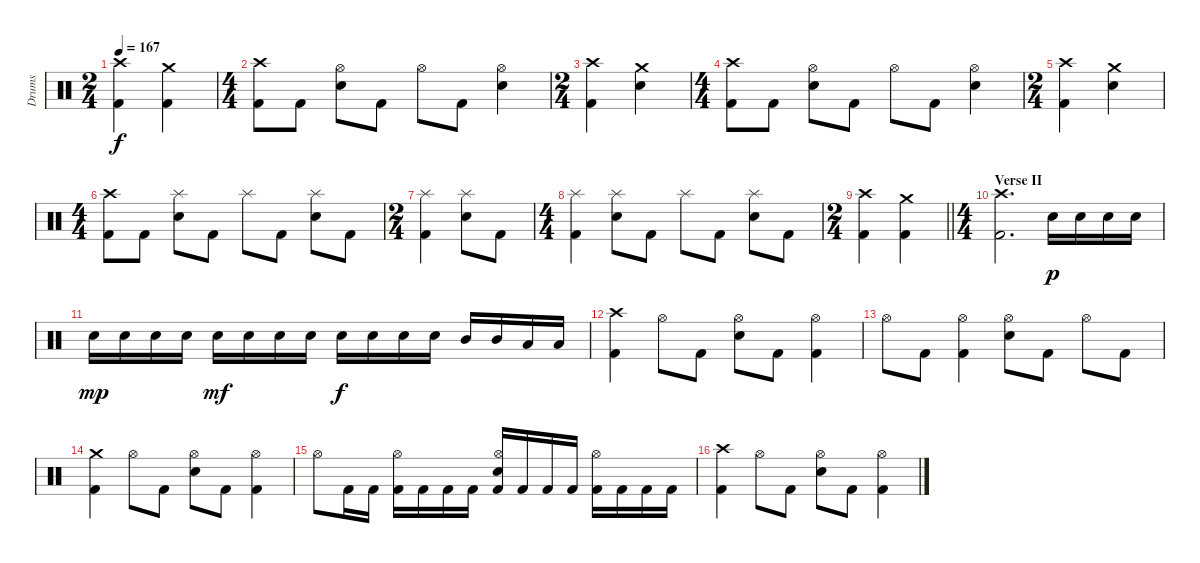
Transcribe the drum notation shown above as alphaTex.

\track ("Drums" "Drums") {instrument percussion}
\staff {score}
\articulation defaults
\ts (2 4)
\tempo 167
\clef neutral
\ks c
("Crash high (hit)" "Kick (hit) 2").4{dy f} ("Crash medium (hit)" "Kick (hit) 2").4 |
\ts (4 4)
("Crash high (hit)" "Kick (hit) 2").8 "Kick (hit) 2".8 ("Hi-Hat (open)" "Snare (hit) 2").8 "Kick (hit) 2".8 "Hi-Hat (open)".8 "Kick (hit) 2".8 ("Hi-Hat (open)" "Snare (hit) 2").4 |
\ts (2 4)
("Crash high (hit)" "Kick (hit) 2").4 ("Crash medium (hit)" "Snare (hit) 2").4 |
\ts (4 4)
("Crash high (hit)" "Kick (hit) 2").8 "Kick (hit) 2".8 ("Hi-Hat (open)" "Snare (hit) 2").8 "Kick (hit) 2".8 "Hi-Hat (open)".8 "Kick (hit) 2".8 ("Hi-Hat (open)" "Snare (hit) 2").4 |
\ts (2 4)
("Crash high (hit)" "Kick (hit) 2").4 ("Crash medium (hit)" "Snare (hit) 2").4 |
\ts (4 4)
("Crash high (hit)" "Kick (hit) 2").8 "Kick (hit) 2".8 ("Splash (hit)" "Snare (hit) 2").8 "Kick (hit) 2".8 "Splash (hit)".8 "Kick (hit) 2".8 ("Splash (hit)" "Snare (hit) 2").8 "Kick (hit) 2".8 |
\ts (2 4)
("Splash (hit)" "Kick (hit) 2").4 ("Splash (hit)" "Snare (hit) 2").8 "Kick (hit) 2".8 |
\ts (4 4)
("Splash (hit)" "Kick (hit) 2").4 ("Splash (hit)" "Snare (hit) 2").8 "Kick (hit) 2".8 "Splash (hit)".8 "Kick (hit) 2".8 ("Splash (hit)" "Snare (hit) 2").8 "Kick (hit) 2".8 |
\ts (2 4)
\barLineRight lightlight
("Crash high (hit)" "Kick (hit) 2").4 ("Crash medium (hit)" "Kick (hit) 2").4 |
\ts (4 4)
\section ("" "Verse II")
("Crash high (hit)" "Kick (hit) 2").2{d} "Snare (hit) 2".16{dy p} "Snare (hit) 2".16 "Snare (hit) 2".16 "Snare (hit) 2".16 |
"Snare (hit) 2".16{dy mp} "Snare (hit) 2".16 "Snare (hit) 2".16 "Snare (hit) 2".16 "Snare (hit) 2".16{dy mf} "Snare (hit) 2".16 "Snare (hit) 2".16 "Snare (hit) 2".16 "Snare (hit) 2".16{dy f} "Snare (hit) 2".16 "Snare (hit) 2".16 "Snare (hit) 2".16 "Mid Tom (hit)".16 "Mid Tom (hit)".16 "Low Tom (hit)".16 "Low Tom (hit)".16 |
("Crash high (hit)" "Kick (hit) 2").4 "Hi-Hat (open)".8 "Kick (hit) 2".8 ("Hi-Hat (open)" "Snare (hit) 2").8 "Kick (hit) 2".8 ("Hi-Hat (open)" "Kick (hit) 2").4 |
"Hi-Hat (open)".8 "Kick (hit) 2".8 ("Hi-Hat (open)" "Kick (hit) 2").4 ("Hi-Hat (open)" "Snare (hit) 2").8 "Kick (hit) 2".8 "Hi-Hat (open)".8 "Kick (hit) 2".8 |
("Crash medium (hit)" "Kick (hit) 2").4 "Hi-Hat (open)".8 "Kick (hit) 2".8 ("Hi-Hat (open)" "Snare (hit) 2").8 "Kick (hit) 2".8 ("Hi-Hat (open)" "Kick (hit) 2").4 |
"Hi-Hat (open)".8 "Kick (hit) 2".16 "Kick (hit) 2".16 ("Hi-Hat (open)" "Kick (hit) 2").16 "Kick (hit) 2".16 "Kick (hit) 2".16 "Kick (hit) 2".16 ("Hi-Hat (open)" "Snare (hit) 2" "Kick (hit) 2").16 "Kick (hit) 2".16 "Kick (hit) 2".16 "Kick (hit) 2".16 ("Hi-Hat (open)" "Kick (hit) 2").16 "Kick (hit) 2".16 "Kick (hit) 2".16 "Kick (hit) 2".16 |
("Crash high (hit)" "Kick (hit) 2").4 "Hi-Hat (open)".8 "Kick (hit) 2".8 ("Hi-Hat (open)" "Snare (hit) 2").8 "Kick (hit) 2".8 ("Hi-Hat (open)" "Kick (hit) 2").4
